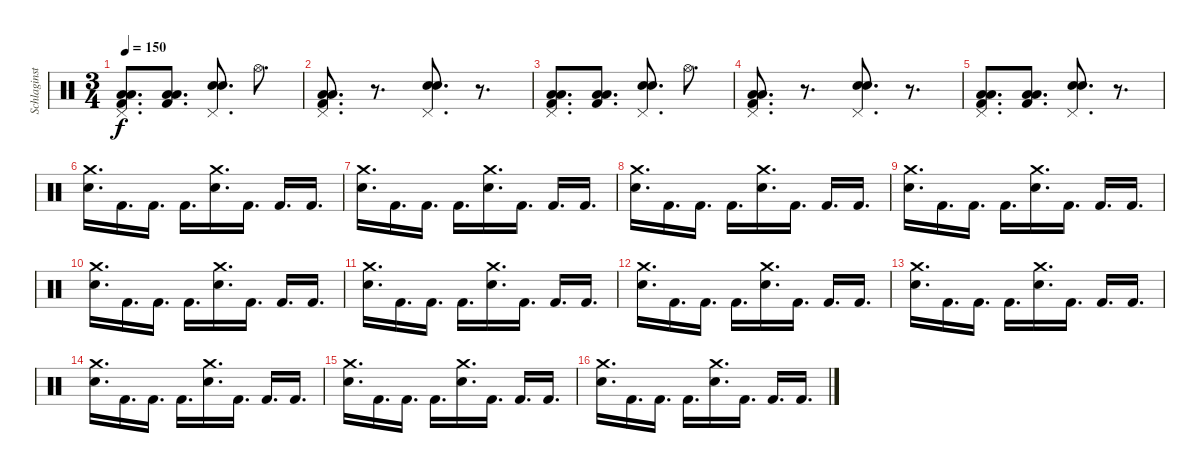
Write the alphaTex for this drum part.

\track ("Schlaginstrumente - Auswahl" "Schlaginst") {instrument percussion}
\staff {score}
\articulation defaults
\ts (3 4)
\tempo 150
\clef neutral
\ks c
("Pedal Hi-Hat (hit)" "Low Tom (hit)" "Low Tom (hit)" "Kick (hit) 2").8{d dy f} ("Low Tom (hit)" "Low Tom (hit)" "Kick (hit) 2").8{d} ("Pedal Hi-Hat (hit)" "Snare (hit) 2" "Snare (hit) 2").8{d} "Hi-Hat (open)".8{d} |
("Pedal Hi-Hat (hit)" "Low Tom (hit)" "Low Tom (hit)" "Kick (hit) 2").8{d} r.8{d} ("Pedal Hi-Hat (hit)" "Snare (hit) 2" "Snare (hit) 2").8{d} r.8{d} |
("Pedal Hi-Hat (hit)" "Low Tom (hit)" "Low Tom (hit)" "Kick (hit) 2").8{d} ("Low Tom (hit)" "Low Tom (hit)" "Kick (hit) 2").8{d} ("Pedal Hi-Hat (hit)" "Snare (hit) 2" "Snare (hit) 2").8{d} "Hi-Hat (open)".8{d} |
("Pedal Hi-Hat (hit)" "Low Tom (hit)" "Low Tom (hit)" "Kick (hit) 2").8{d} r.8{d} ("Pedal Hi-Hat (hit)" "Snare (hit) 2" "Snare (hit) 2").8{d} r.8{d} |
("Pedal Hi-Hat (hit)" "Low Tom (hit)" "Low Tom (hit)" "Kick (hit) 2").8{d} ("Low Tom (hit)" "Low Tom (hit)" "Kick (hit) 2").8{d} ("Pedal Hi-Hat (hit)" "Snare (hit) 2" "Snare (hit) 2").8{d} r.8{d} |
("Crash medium (hit)" "Snare (hit) 2").16{d} "Kick (hit) 2".16{d} "Kick (hit) 2".16{d} "Kick (hit) 2".16{d} ("Crash medium (hit)" "Snare (hit) 2").16{d} "Kick (hit) 2".16{d} "Kick (hit) 2".16{d} "Kick (hit) 2".16{d} |
("Crash medium (hit)" "Snare (hit) 2").16{d} "Kick (hit) 2".16{d} "Kick (hit) 2".16{d} "Kick (hit) 2".16{d} ("Crash medium (hit)" "Snare (hit) 2").16{d} "Kick (hit) 2".16{d} "Kick (hit) 2".16{d} "Kick (hit) 2".16{d} |
("Crash medium (hit)" "Snare (hit) 2").16{d} "Kick (hit) 2".16{d} "Kick (hit) 2".16{d} "Kick (hit) 2".16{d} ("Crash medium (hit)" "Snare (hit) 2").16{d} "Kick (hit) 2".16{d} "Kick (hit) 2".16{d} "Kick (hit) 2".16{d} |
("Crash medium (hit)" "Snare (hit) 2").16{d} "Kick (hit) 2".16{d} "Kick (hit) 2".16{d} "Kick (hit) 2".16{d} ("Crash medium (hit)" "Snare (hit) 2").16{d} "Kick (hit) 2".16{d} "Kick (hit) 2".16{d} "Kick (hit) 2".16{d} |
("Crash medium (hit)" "Snare (hit) 2").16{d} "Kick (hit) 2".16{d} "Kick (hit) 2".16{d} "Kick (hit) 2".16{d} ("Crash medium (hit)" "Snare (hit) 2").16{d} "Kick (hit) 2".16{d} "Kick (hit) 2".16{d} "Kick (hit) 2".16{d} |
("Crash medium (hit)" "Snare (hit) 2").16{d} "Kick (hit) 2".16{d} "Kick (hit) 2".16{d} "Kick (hit) 2".16{d} ("Crash medium (hit)" "Snare (hit) 2").16{d} "Kick (hit) 2".16{d} "Kick (hit) 2".16{d} "Kick (hit) 2".16{d} |
("Crash medium (hit)" "Snare (hit) 2").16{d} "Kick (hit) 2".16{d} "Kick (hit) 2".16{d} "Kick (hit) 2".16{d} ("Crash medium (hit)" "Snare (hit) 2").16{d} "Kick (hit) 2".16{d} "Kick (hit) 2".16{d} "Kick (hit) 2".16{d} |
("Crash medium (hit)" "Snare (hit) 2").16{d} "Kick (hit) 2".16{d} "Kick (hit) 2".16{d} "Kick (hit) 2".16{d} ("Crash medium (hit)" "Snare (hit) 2").16{d} "Kick (hit) 2".16{d} "Kick (hit) 2".16{d} "Kick (hit) 2".16{d} |
("Crash medium (hit)" "Snare (hit) 2").16{d} "Kick (hit) 2".16{d} "Kick (hit) 2".16{d} "Kick (hit) 2".16{d} ("Crash medium (hit)" "Snare (hit) 2").16{d} "Kick (hit) 2".16{d} "Kick (hit) 2".16{d} "Kick (hit) 2".16{d} |
("Crash medium (hit)" "Snare (hit) 2").16{d} "Kick (hit) 2".16{d} "Kick (hit) 2".16{d} "Kick (hit) 2".16{d} ("Crash medium (hit)" "Snare (hit) 2").16{d} "Kick (hit) 2".16{d} "Kick (hit) 2".16{d} "Kick (hit) 2".16{d} |
("Crash medium (hit)" "Snare (hit) 2").16{d} "Kick (hit) 2".16{d} "Kick (hit) 2".16{d} "Kick (hit) 2".16{d} ("Crash medium (hit)" "Snare (hit) 2").16{d} "Kick (hit) 2".16{d} "Kick (hit) 2".16{d} "Kick (hit) 2".16{d}
